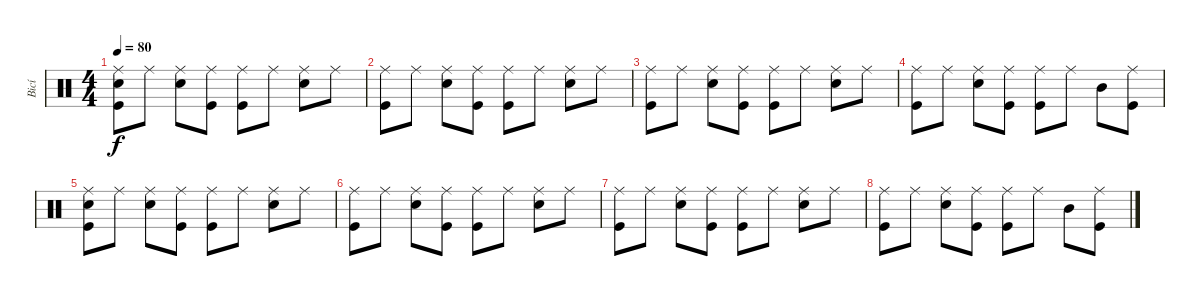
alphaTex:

\track ("Bicí" "Bicí") {instrument percussion}
\staff {score}
\articulation defaults
\ts (4 4)
\tempo 80
\clef neutral
\ks c
("Ride (middle)" "Snare (hit) 2" "Kick (hit)").8{dy f} "Ride (middle)".8 ("Ride (middle)" "Snare (hit) 2").8 ("Ride (middle)" "Kick (hit)").8 ("Ride (middle)" "Kick (hit)").8 "Ride (middle)".8 ("Ride (middle)" "Snare (hit) 2").8 "Ride (middle)".8 |
("Ride (middle)" "Kick (hit)").8 "Ride (middle)".8 ("Ride (middle)" "Snare (hit) 2").8 ("Ride (middle)" "Kick (hit)").8 ("Ride (middle)" "Kick (hit)").8 "Ride (middle)".8 ("Ride (middle)" "Snare (hit) 2").8 "Ride (middle)".8 |
("Ride (middle)" "Kick (hit)").8 "Ride (middle)".8 ("Ride (middle)" "Snare (hit) 2").8 ("Ride (middle)" "Kick (hit)").8 ("Ride (middle)" "Kick (hit)").8 "Ride (middle)".8 ("Ride (middle)" "Snare (hit) 2").8 "Ride (middle)".8 |
("Ride (middle)" "Kick (hit)").8 "Ride (middle)".8 ("Ride (middle)" "Snare (hit) 2").8 ("Ride (middle)" "Kick (hit)").8 ("Ride (middle)" "Kick (hit)").8 "Ride (middle)".8 "Mid Tom (hit)".8 ("Ride (middle)" "Kick (hit)").8 |
("Ride (middle)" "Snare (hit) 2" "Kick (hit)").8 "Ride (middle)".8 ("Ride (middle)" "Snare (hit) 2").8 ("Ride (middle)" "Kick (hit)").8 ("Ride (middle)" "Kick (hit)").8 "Ride (middle)".8 ("Ride (middle)" "Snare (hit) 2").8 "Ride (middle)".8 |
("Ride (middle)" "Kick (hit)").8 "Ride (middle)".8 ("Ride (middle)" "Snare (hit) 2").8 ("Ride (middle)" "Kick (hit)").8 ("Ride (middle)" "Kick (hit)").8 "Ride (middle)".8 ("Ride (middle)" "Snare (hit) 2").8 "Ride (middle)".8 |
("Ride (middle)" "Kick (hit)").8 "Ride (middle)".8 ("Ride (middle)" "Snare (hit) 2").8 ("Ride (middle)" "Kick (hit)").8 ("Ride (middle)" "Kick (hit)").8 "Ride (middle)".8 ("Ride (middle)" "Snare (hit) 2").8 "Ride (middle)".8 |
("Ride (middle)" "Kick (hit)").8 "Ride (middle)".8 ("Ride (middle)" "Snare (hit) 2").8 ("Ride (middle)" "Kick (hit)").8 ("Ride (middle)" "Kick (hit)").8 "Ride (middle)".8 "Mid Tom (hit)".8 ("Ride (middle)" "Kick (hit)").8
